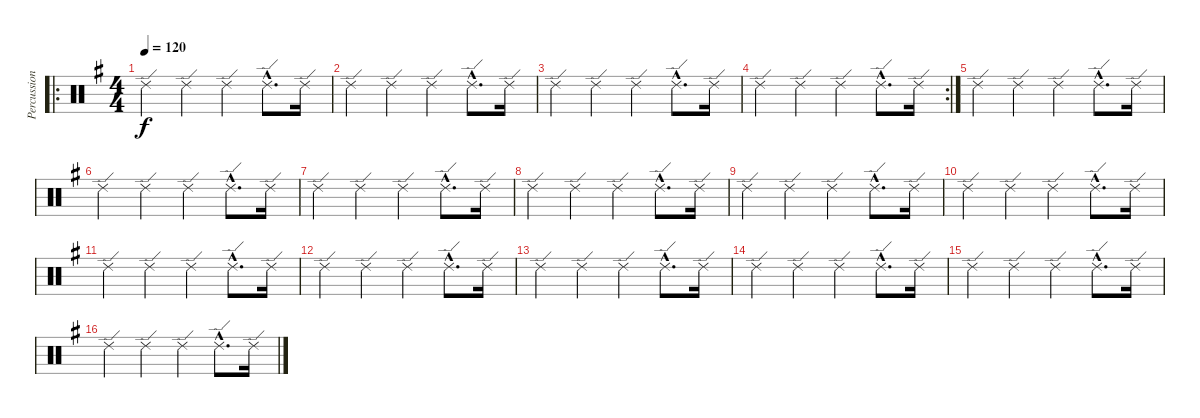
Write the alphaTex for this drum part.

\track ("Percussioni" "Percussion") {instrument percussion}
\staff {score}
\articulation defaults
\ro
\ts (4 4)
\tempo 120
\clef neutral
\ks eminor "Ride (edge) 2".4{dy f} "Ride (edge) 2".4 "Ride (edge) 2".4 "Ride (edge) 2"{hac}.8{d} "Ride (edge) 2".16
|
"Ride (edge) 2".4 "Ride (edge) 2".4 "Ride (edge) 2".4 "Ride (edge) 2"{hac}.8{d} "Ride (edge) 2".16 |
"Ride (edge) 2".4 "Ride (edge) 2".4 "Ride (edge) 2".4 "Ride (edge) 2"{hac}.8{d} "Ride (edge) 2".16 |
\rc 2 "Ride (edge) 2".4 "Ride (edge) 2".4 "Ride (edge) 2".4 "Ride (edge) 2"{hac}.8{d} "Ride (edge) 2".16
|
"Ride (edge) 2".4 "Ride (edge) 2".4 "Ride (edge) 2".4 "Ride (edge) 2"{hac}.8{d} "Ride (edge) 2".16 |
"Ride (edge) 2".4 "Ride (edge) 2".4 "Ride (edge) 2".4 "Ride (edge) 2"{hac}.8{d} "Ride (edge) 2".16 |
"Ride (edge) 2".4 "Ride (edge) 2".4 "Ride (edge) 2".4 "Ride (edge) 2"{hac}.8{d} "Ride (edge) 2".16 |
"Ride (edge) 2".4 "Ride (edge) 2".4 "Ride (edge) 2".4 "Ride (edge) 2"{hac}.8{d} "Ride (edge) 2".16 |
"Ride (edge) 2".4 "Ride (edge) 2".4 "Ride (edge) 2".4 "Ride (edge) 2"{hac}.8{d} "Ride (edge) 2".16 |
"Ride (edge) 2".4 "Ride (edge) 2".4 "Ride (edge) 2".4 "Ride (edge) 2"{hac}.8{d} "Ride (edge) 2".16 |
"Ride (edge) 2".4 "Ride (edge) 2".4 "Ride (edge) 2".4 "Ride (edge) 2"{hac}.8{d} "Ride (edge) 2".16 |
"Ride (edge) 2".4 "Ride (edge) 2".4 "Ride (edge) 2".4 "Ride (edge) 2"{hac}.8{d} "Ride (edge) 2".16 |
"Ride (edge) 2".4 "Ride (edge) 2".4 "Ride (edge) 2".4 "Ride (edge) 2"{hac}.8{d} "Ride (edge) 2".16 |
"Ride (edge) 2".4 "Ride (edge) 2".4 "Ride (edge) 2".4 "Ride (edge) 2"{hac}.8{d} "Ride (edge) 2".16 |
"Ride (edge) 2".4 "Ride (edge) 2".4 "Ride (edge) 2".4 "Ride (edge) 2"{hac}.8{d} "Ride (edge) 2".16 |
"Ride (edge) 2".4 "Ride (edge) 2".4 "Ride (edge) 2".4 "Ride (edge) 2"{hac}.8{d} "Ride (edge) 2".16
